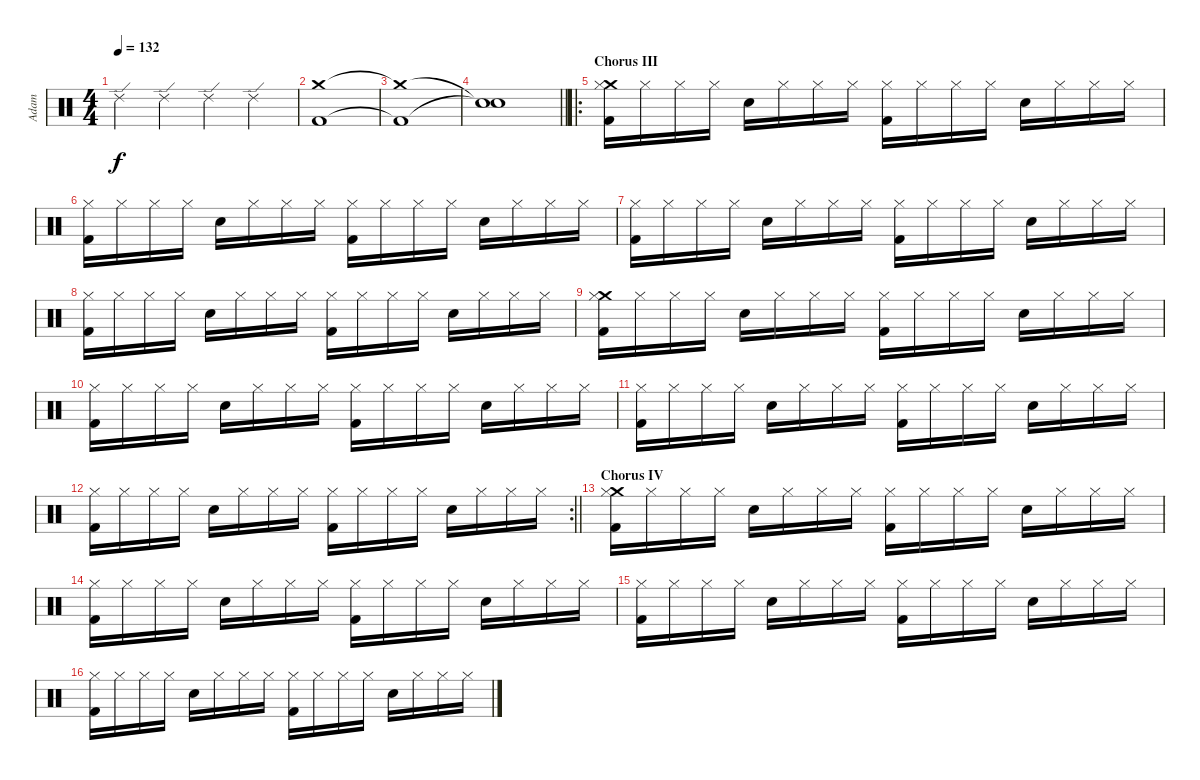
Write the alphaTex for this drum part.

\track ("Adam" "Adam") {instrument percussion}
\staff {score}
\articulation defaults
\ts (4 4)
\tempo 132
\clef neutral
\ks c "Ride (edge) 2".4{dy f} "Ride (edge) 2".4 "Ride (edge) 2".4 "Ride (edge) 2".4
|
("Crash medium (hit)" "Kick (hit) 2").1 |
("Crash medium (hit)"{t} "Kick (hit) 2"{t}).1 |
\barLineRight lightlight
("Snare (hit)"{t} "Snare (hit)"{t}).1 |
\ro
\section ("" "Chorus III")
("Crash medium (hit)" "Hi-Hat (closed)" "Kick (hit) 2").16 "Hi-Hat (closed)".16 "Hi-Hat (closed)".16 "Hi-Hat (closed)".16 "Snare (hit) 2".16 "Hi-Hat (closed)".16 "Hi-Hat (closed)".16 "Hi-Hat (closed)".16 ("Hi-Hat (closed)" "Kick (hit) 2").16 "Hi-Hat (closed)".16 "Hi-Hat (closed)".16 "Hi-Hat (closed)".16 "Snare (hit) 2".16 "Hi-Hat (closed)".16 "Hi-Hat (closed)".16 "Hi-Hat (closed)".16 |
("Hi-Hat (closed)" "Kick (hit) 2").16 "Hi-Hat (closed)".16 "Hi-Hat (closed)".16 "Hi-Hat (closed)".16 "Snare (hit) 2".16 "Hi-Hat (closed)".16 "Hi-Hat (closed)".16 "Hi-Hat (closed)".16 ("Hi-Hat (closed)" "Kick (hit) 2").16 "Hi-Hat (closed)".16 "Hi-Hat (closed)".16 "Hi-Hat (closed)".16 "Snare (hit) 2".16 "Hi-Hat (closed)".16 "Hi-Hat (closed)".16 "Hi-Hat (closed)".16 |
("Hi-Hat (closed)" "Kick (hit) 2").16 "Hi-Hat (closed)".16 "Hi-Hat (closed)".16 "Hi-Hat (closed)".16 "Snare (hit) 2".16 "Hi-Hat (closed)".16 "Hi-Hat (closed)".16 "Hi-Hat (closed)".16 ("Hi-Hat (closed)" "Kick (hit) 2").16 "Hi-Hat (closed)".16 "Hi-Hat (closed)".16 "Hi-Hat (closed)".16 "Snare (hit) 2".16 "Hi-Hat (closed)".16 "Hi-Hat (closed)".16 "Hi-Hat (closed)".16 |
("Hi-Hat (closed)" "Kick (hit) 2").16 "Hi-Hat (closed)".16 "Hi-Hat (closed)".16 "Hi-Hat (closed)".16 "Snare (hit) 2".16 "Hi-Hat (closed)".16 "Hi-Hat (closed)".16 "Hi-Hat (closed)".16 ("Hi-Hat (closed)" "Kick (hit) 2").16 "Hi-Hat (closed)".16 "Hi-Hat (closed)".16 "Hi-Hat (closed)".16 "Snare (hit) 2".16 "Hi-Hat (closed)".16 "Hi-Hat (closed)".16 "Hi-Hat (closed)".16 |
("Crash medium (hit)" "Hi-Hat (closed)" "Kick (hit) 2").16 "Hi-Hat (closed)".16 "Hi-Hat (closed)".16 "Hi-Hat (closed)".16 "Snare (hit) 2".16 "Hi-Hat (closed)".16 "Hi-Hat (closed)".16 "Hi-Hat (closed)".16 ("Hi-Hat (closed)" "Kick (hit) 2").16 "Hi-Hat (closed)".16 "Hi-Hat (closed)".16 "Hi-Hat (closed)".16 "Snare (hit) 2".16 "Hi-Hat (closed)".16 "Hi-Hat (closed)".16 "Hi-Hat (closed)".16 |
("Hi-Hat (closed)" "Kick (hit) 2").16 "Hi-Hat (closed)".16 "Hi-Hat (closed)".16 "Hi-Hat (closed)".16 "Snare (hit) 2".16 "Hi-Hat (closed)".16 "Hi-Hat (closed)".16 "Hi-Hat (closed)".16 ("Hi-Hat (closed)" "Kick (hit) 2").16 "Hi-Hat (closed)".16 "Hi-Hat (closed)".16 "Hi-Hat (closed)".16 "Snare (hit) 2".16 "Hi-Hat (closed)".16 "Hi-Hat (closed)".16 "Hi-Hat (closed)".16 |
("Hi-Hat (closed)" "Kick (hit) 2").16 "Hi-Hat (closed)".16 "Hi-Hat (closed)".16 "Hi-Hat (closed)".16 "Snare (hit) 2".16 "Hi-Hat (closed)".16 "Hi-Hat (closed)".16 "Hi-Hat (closed)".16 ("Hi-Hat (closed)" "Kick (hit) 2").16 "Hi-Hat (closed)".16 "Hi-Hat (closed)".16 "Hi-Hat (closed)".16 "Snare (hit) 2".16 "Hi-Hat (closed)".16 "Hi-Hat (closed)".16 "Hi-Hat (closed)".16 |
\rc 2
\barLineRight lightlight
("Hi-Hat (closed)" "Kick (hit) 2").16 "Hi-Hat (closed)".16 "Hi-Hat (closed)".16 "Hi-Hat (closed)".16 "Snare (hit) 2".16 "Hi-Hat (closed)".16 "Hi-Hat (closed)".16 "Hi-Hat (closed)".16 ("Hi-Hat (closed)" "Kick (hit) 2").16 "Hi-Hat (closed)".16 "Hi-Hat (closed)".16 "Hi-Hat (closed)".16 "Snare (hit) 2".16 "Hi-Hat (closed)".16 "Hi-Hat (closed)".16 "Hi-Hat (closed)".16 |
\section ("" "Chorus IV")
("Crash medium (hit)" "Hi-Hat (closed)" "Kick (hit) 2").16 "Hi-Hat (closed)".16 "Hi-Hat (closed)".16 "Hi-Hat (closed)".16 "Snare (hit) 2".16 "Hi-Hat (closed)".16 "Hi-Hat (closed)".16 "Hi-Hat (closed)".16 ("Hi-Hat (closed)" "Kick (hit) 2").16 "Hi-Hat (closed)".16 "Hi-Hat (closed)".16 "Hi-Hat (closed)".16 "Snare (hit) 2".16 "Hi-Hat (closed)".16 "Hi-Hat (closed)".16 "Hi-Hat (closed)".16 |
("Hi-Hat (closed)" "Kick (hit) 2").16 "Hi-Hat (closed)".16 "Hi-Hat (closed)".16 "Hi-Hat (closed)".16 "Snare (hit) 2".16 "Hi-Hat (closed)".16 "Hi-Hat (closed)".16 "Hi-Hat (closed)".16 ("Hi-Hat (closed)" "Kick (hit) 2").16 "Hi-Hat (closed)".16 "Hi-Hat (closed)".16 "Hi-Hat (closed)".16 "Snare (hit) 2".16 "Hi-Hat (closed)".16 "Hi-Hat (closed)".16 "Hi-Hat (closed)".16 |
("Hi-Hat (closed)" "Kick (hit) 2").16 "Hi-Hat (closed)".16 "Hi-Hat (closed)".16 "Hi-Hat (closed)".16 "Snare (hit) 2".16 "Hi-Hat (closed)".16 "Hi-Hat (closed)".16 "Hi-Hat (closed)".16 ("Hi-Hat (closed)" "Kick (hit) 2").16 "Hi-Hat (closed)".16 "Hi-Hat (closed)".16 "Hi-Hat (closed)".16 "Snare (hit) 2".16 "Hi-Hat (closed)".16 "Hi-Hat (closed)".16 "Hi-Hat (closed)".16 |
("Hi-Hat (closed)" "Kick (hit) 2").16 "Hi-Hat (closed)".16 "Hi-Hat (closed)".16 "Hi-Hat (closed)".16 "Snare (hit) 2".16 "Hi-Hat (closed)".16 "Hi-Hat (closed)".16 "Hi-Hat (closed)".16 ("Hi-Hat (closed)" "Kick (hit) 2").16 "Hi-Hat (closed)".16 "Hi-Hat (closed)".16 "Hi-Hat (closed)".16 "Snare (hit) 2".16 "Hi-Hat (closed)".16 "Hi-Hat (closed)".16 "Hi-Hat (closed)".16
